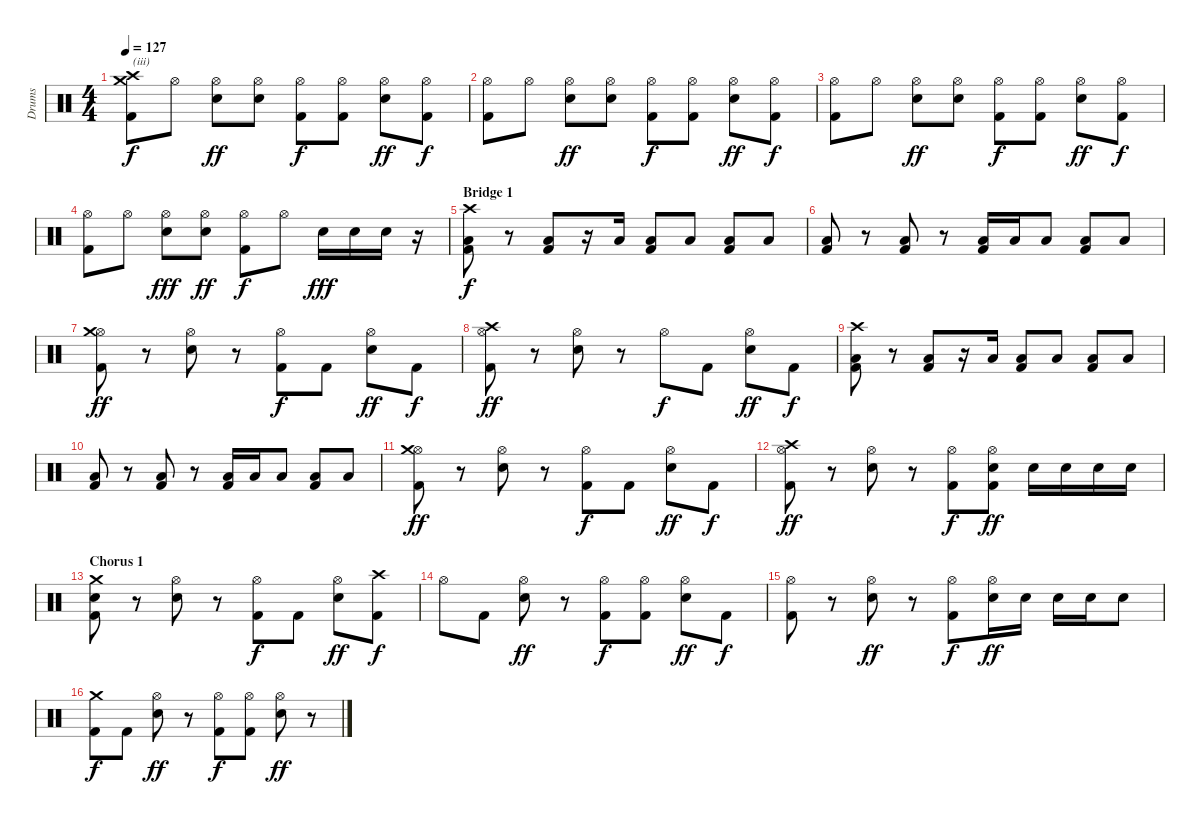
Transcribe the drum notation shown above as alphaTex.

\track ("Drums" "Drums") {instrument percussion}
\staff {score}
\articulation defaults
\ts (4 4)
\tempo 127
\clef neutral
\ks c
("Crash medium (hit)" "Crash high (hit)" "Kick (hit) 2").8{txt "(iii)" dy f} "Hi-Hat (open)".8 ("Hi-Hat (open)" "Electric Snare (hit)").8{dy ff} ("Hi-Hat (open)" "Electric Snare (hit)").8 ("Hi-Hat (open)" "Kick (hit) 2").8{dy f} ("Hi-Hat (open)" "Kick (hit) 2").8 ("Hi-Hat (open)" "Electric Snare (hit)").8{dy ff} ("Hi-Hat (open)" "Kick (hit) 2").8{dy f} |
("Hi-Hat (open)" "Kick (hit) 2").8 "Hi-Hat (open)".8 ("Hi-Hat (open)" "Electric Snare (hit)").8{dy ff} ("Hi-Hat (open)" "Electric Snare (hit)").8 ("Hi-Hat (open)" "Kick (hit) 2").8{dy f} ("Hi-Hat (open)" "Kick (hit) 2").8 ("Hi-Hat (open)" "Electric Snare (hit)").8{dy ff} ("Hi-Hat (open)" "Kick (hit) 2").8{dy f} |
("Hi-Hat (open)" "Kick (hit) 2").8 "Hi-Hat (open)".8 ("Hi-Hat (open)" "Electric Snare (hit)").8{dy ff} ("Hi-Hat (open)" "Electric Snare (hit)").8 ("Hi-Hat (open)" "Kick (hit) 2").8{dy f} ("Hi-Hat (open)" "Kick (hit) 2").8 ("Hi-Hat (open)" "Electric Snare (hit)").8{dy ff} ("Hi-Hat (open)" "Kick (hit) 2").8{dy f} |
("Hi-Hat (open)" "Kick (hit) 2").8 "Hi-Hat (open)".8 ("Hi-Hat (open)" "Electric Snare (hit)").8{dy fff} ("Hi-Hat (open)" "Electric Snare (hit)").8{dy ff} ("Hi-Hat (open)" "Kick (hit) 2").8{dy f} "Hi-Hat (open)".8 "Electric Snare (hit)".16{dy fff} "Electric Snare (hit)".16 "Electric Snare (hit)".16 r.16 |
\section ("" "Bridge 1")
("Crash high (hit)" "Low Floor Tom (hit)" "Kick (hit) 2").8{dy f} r.8 ("Low Tom (hit)" "Kick (hit) 2").8 r.16 "Low Tom (hit)".16 ("Low Floor Tom (hit)" "Kick (hit) 2").8 "Low Floor Tom (hit)".8 ("Low Tom (hit)" "Kick (hit) 2").8 "Low Floor Tom (hit)".8 |
("Low Floor Tom (hit)" "Kick (hit) 2").8 r.8 ("Low Tom (hit)" "Kick (hit) 2").8 r.8 ("Low Floor Tom (hit)" "Kick (hit) 2").16 "Low Floor Tom (hit)".16 "Low Floor Tom (hit)".8 ("Low Tom (hit)" "Kick (hit) 2").8 "Low Floor Tom (hit)".8 |
("Hi-Hat (open)" "Crash medium (hit)" "Kick (hit) 2").8{dy ff} r.8 ("Hi-Hat (open)" "Electric Snare (hit)").8 r.8 ("Hi-Hat (open)" "Kick (hit) 2").8{dy f} "Kick (hit) 2".8 ("Hi-Hat (open)" "Electric Snare (hit)").8{dy ff} "Kick (hit) 2".8{dy f} |
("Hi-Hat (open)" "Crash high (hit)" "Kick (hit) 2").8{dy ff} r.8 ("Hi-Hat (open)" "Electric Snare (hit)").8 r.8 "Hi-Hat (open)".8{dy f} "Kick (hit) 2".8 ("Hi-Hat (open)" "Electric Snare (hit)").8{dy ff} "Kick (hit) 2".8{dy f} |
("Crash high (hit)" "Low Floor Tom (hit)" "Kick (hit) 2").8 r.8 ("Low Tom (hit)" "Kick (hit) 2").8 r.16 "Low Tom (hit)".16 ("Low Floor Tom (hit)" "Kick (hit) 2").8 "Low Floor Tom (hit)".8 ("Low Tom (hit)" "Kick (hit) 2").8 "Low Floor Tom (hit)".8 |
("Low Floor Tom (hit)" "Kick (hit) 2").8 r.8 ("Low Tom (hit)" "Kick (hit) 2").8 r.8 ("Low Floor Tom (hit)" "Kick (hit) 2").16 "Low Floor Tom (hit)".16 "Low Floor Tom (hit)".8 ("Low Tom (hit)" "Kick (hit) 2").8 "Low Floor Tom (hit)".8 |
("Hi-Hat (open)" "Crash medium (hit)" "Kick (hit) 2").8{dy ff} r.8 ("Hi-Hat (open)" "Electric Snare (hit)").8 r.8 ("Hi-Hat (open)" "Kick (hit) 2").8{dy f} "Kick (hit) 2".8 ("Hi-Hat (open)" "Electric Snare (hit)").8{dy ff} "Kick (hit) 2".8{dy f} |
("Hi-Hat (open)" "Crash high (hit)" "Kick (hit) 2").8{dy ff} r.8 ("Hi-Hat (open)" "Electric Snare (hit)").8 r.8 ("Hi-Hat (open)" "Kick (hit) 2").8{dy f} ("Hi-Hat (open)" "Electric Snare (hit)" "Kick (hit) 2").8{dy ff} "Electric Snare (hit)".16 "Electric Snare (hit)".16 "Electric Snare (hit)".16 "Electric Snare (hit)".16 |
\section ("" "Chorus 1")
("Crash medium (hit)" "Electric Snare (hit)" "Kick (hit) 2").8 r.8 ("Hi-Hat (open)" "Electric Snare (hit)").8 r.8 ("Hi-Hat (open)" "Kick (hit) 2").8{dy f} "Kick (hit) 2".8 ("Hi-Hat (open)" "Electric Snare (hit)").8{dy ff} ("Crash high (hit)" "Kick (hit) 2").8{dy f} |
"Hi-Hat (open)".8 "Kick (hit) 2".8 ("Hi-Hat (open)" "Electric Snare (hit)").8{dy ff} r.8 ("Hi-Hat (open)" "Kick (hit) 2").8{dy f} ("Hi-Hat (open)" "Kick (hit) 2").8 ("Hi-Hat (open)" "Electric Snare (hit)").8{dy ff} "Kick (hit) 2".8{dy f} |
("Hi-Hat (open)" "Kick (hit) 2").8 r.8 ("Hi-Hat (open)" "Electric Snare (hit)").8{dy ff} r.8 ("Hi-Hat (open)" "Kick (hit) 2").8{dy f} ("Hi-Hat (open)" "Electric Snare (hit)").16{dy ff} "Electric Snare (hit)".16 "Electric Snare (hit)".16 "Electric Snare (hit)".16 "Electric Snare (hit)".8 |
("Crash medium (hit)" "Kick (hit) 2").8{dy f} "Kick (hit) 2".8 ("Hi-Hat (open)" "Electric Snare (hit)").8{dy ff} r.8 ("Hi-Hat (open)" "Kick (hit) 2").8{dy f} ("Hi-Hat (open)" "Kick (hit) 2").8 ("Hi-Hat (open)" "Electric Snare (hit)").8{dy ff} r.8
